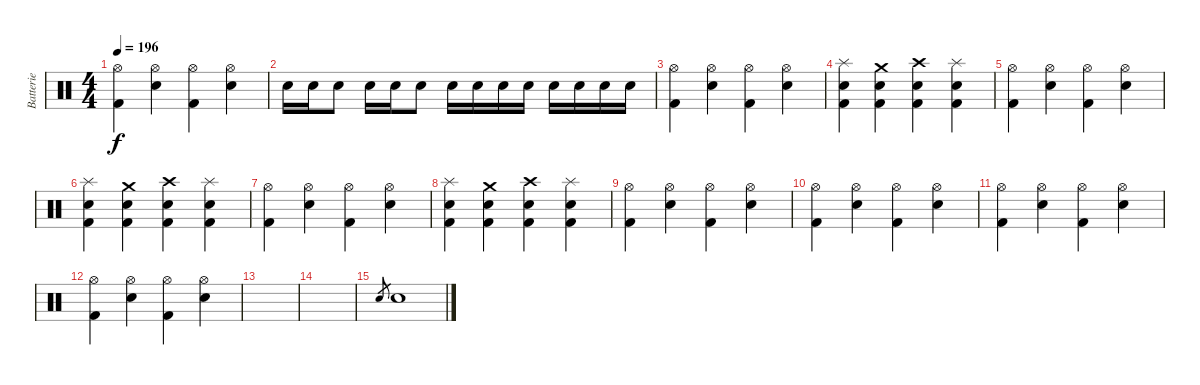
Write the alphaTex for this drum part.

\track ("Batterie" "Batterie") {instrument percussion}
\staff {score}
\articulation defaults
\ts (4 4)
\tempo 196
\clef neutral
\ks c
("Hi-Hat (open)" "Kick (hit) 2").4{dy f} ("Hi-Hat (open)" "Electric Snare (hit)").4 ("Hi-Hat (open)" "Kick (hit) 2").4 ("Hi-Hat (open)" "Electric Snare (hit)").4 |
"Electric Snare (hit)".16 "Electric Snare (hit)".16 "Electric Snare (hit)".8 "Electric Snare (hit)".16 "Electric Snare (hit)".16 "Electric Snare (hit)".8 "Electric Snare (hit)".16 "Electric Snare (hit)".16 "Electric Snare (hit)".16 "Electric Snare (hit)".16 "Electric Snare (hit)".16 "Electric Snare (hit)".16 "Electric Snare (hit)".16 "Electric Snare (hit)".16 |
("Hi-Hat (open)" "Kick (hit) 2").4 ("Hi-Hat (open)" "Electric Snare (hit)").4 ("Hi-Hat (open)" "Kick (hit) 2").4 ("Hi-Hat (open)" "Electric Snare (hit)").4 |
("Splash (hit)" "Kick (hit) 2" "Electric Snare (hit)").4 ("Crash medium (hit)" "Kick (hit) 2" "Electric Snare (hit)").4 ("Crash high (hit)" "Kick (hit) 2" "Electric Snare (hit)").4 ("Splash (hit)" "Kick (hit) 2" "Electric Snare (hit)").4 |
("Hi-Hat (open)" "Kick (hit) 2").4 ("Hi-Hat (open)" "Electric Snare (hit)").4 ("Hi-Hat (open)" "Kick (hit) 2").4 ("Hi-Hat (open)" "Electric Snare (hit)").4 |
("Splash (hit)" "Kick (hit) 2" "Electric Snare (hit)").4 ("Crash medium (hit)" "Kick (hit) 2" "Electric Snare (hit)").4 ("Crash high (hit)" "Kick (hit) 2" "Electric Snare (hit)").4 ("Splash (hit)" "Kick (hit) 2" "Electric Snare (hit)").4 |
("Hi-Hat (open)" "Kick (hit) 2").4 ("Hi-Hat (open)" "Electric Snare (hit)").4 ("Hi-Hat (open)" "Kick (hit) 2").4 ("Hi-Hat (open)" "Electric Snare (hit)").4 |
("Splash (hit)" "Kick (hit) 2" "Electric Snare (hit)").4 ("Crash medium (hit)" "Kick (hit) 2" "Electric Snare (hit)").4 ("Crash high (hit)" "Kick (hit) 2" "Electric Snare (hit)").4 ("Splash (hit)" "Kick (hit) 2" "Electric Snare (hit)").4 |
("Hi-Hat (open)" "Kick (hit) 2").4 ("Hi-Hat (open)" "Electric Snare (hit)").4 ("Hi-Hat (open)" "Kick (hit) 2").4 ("Hi-Hat (open)" "Electric Snare (hit)").4 |
("Hi-Hat (open)" "Kick (hit) 2").4 ("Hi-Hat (open)" "Electric Snare (hit)").4 ("Hi-Hat (open)" "Kick (hit) 2").4 ("Hi-Hat (open)" "Electric Snare (hit)").4 |
("Hi-Hat (open)" "Kick (hit) 2").4 ("Hi-Hat (open)" "Electric Snare (hit)").4 ("Hi-Hat (open)" "Kick (hit) 2").4 ("Hi-Hat (open)" "Electric Snare (hit)").4 |
("Hi-Hat (open)" "Kick (hit) 2").4 ("Hi-Hat (open)" "Electric Snare (hit)").4 ("Hi-Hat (open)" "Kick (hit) 2").4 ("Hi-Hat (open)" "Electric Snare (hit)").4 |
|
|
"Electric Snare (hit)".8{gr} "Electric Snare (hit)".1
